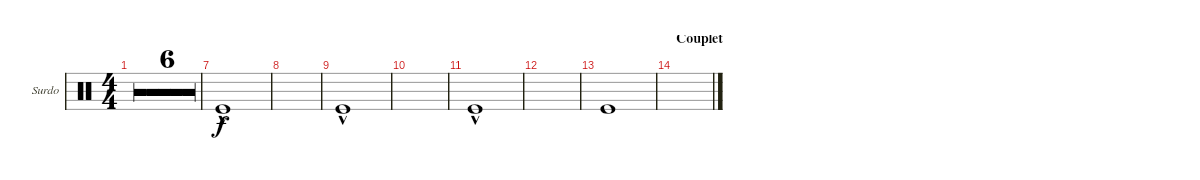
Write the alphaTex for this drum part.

\defaultSystemsLayout 4
\bracketExtendMode groupsimilarinstruments
\firstSystemTrackNameOrientation horizontal
\otherSystemsTrackNameOrientation horizontal
\track ("Surdo" "Surdo") {multiBarRest instrument percussion}
\staff {score}
\articulation defaults
\ts (4 4)
\tempo 120
\clef neutral
\ks c
|
|
|
|
|
|
"Kick (hit)"{hac}.1 |
|
"Kick (hit)"{hac}.1 |
|
"Kick (hit)"{hac}.1 |
|
"Kick (hit)".1 |
\section ("" "Couplet")
